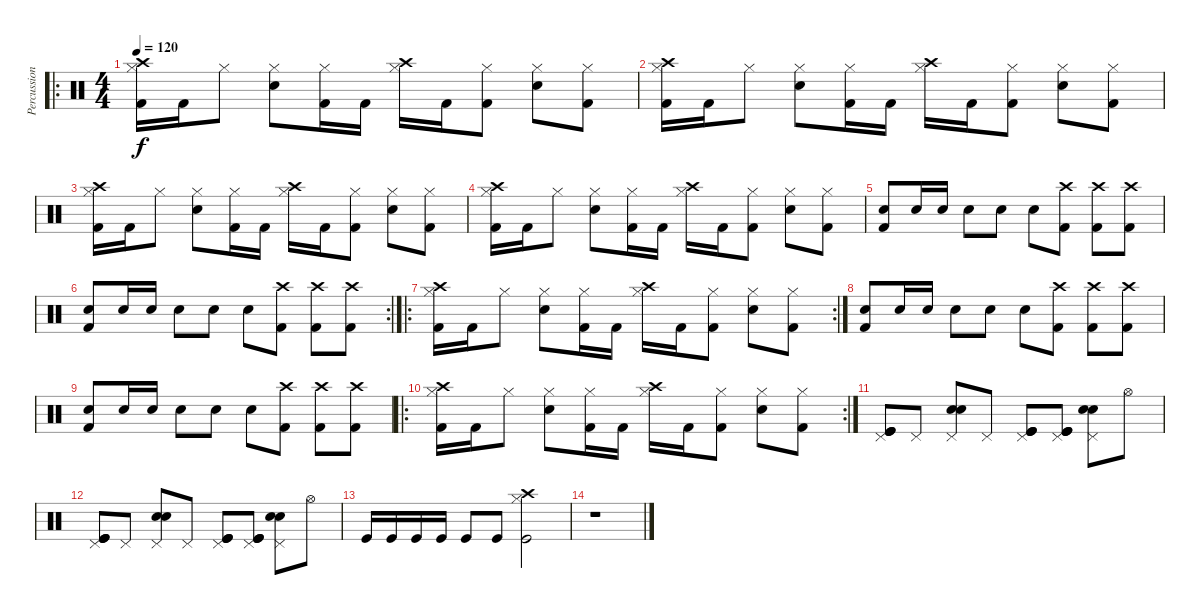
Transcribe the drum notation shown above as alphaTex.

\track ("Percussion" "Percussion") {instrument percussion}
\staff {score}
\articulation defaults
\ro
\ts (4 4)
\tempo 120
\clef neutral
\ks c
("Crash high (hit)" "Hi-Hat (closed)" "Kick (hit) 2").16{dy f} "Kick (hit) 2".16 "Hi-Hat (closed)".8 ("Hi-Hat (closed)" "Snare (hit) 2").8 ("Hi-Hat (closed)" "Kick (hit) 2").16 "Kick (hit) 2".16 ("Crash high (hit)" "Hi-Hat (closed)").16 "Kick (hit) 2".16 ("Hi-Hat (closed)" "Kick (hit) 2").8 ("Hi-Hat (closed)" "Snare (hit) 2").8 ("Hi-Hat (closed)" "Kick (hit) 2").8 |
("Crash high (hit)" "Hi-Hat (closed)" "Kick (hit) 2").16 "Kick (hit) 2".16 "Hi-Hat (closed)".8 ("Hi-Hat (closed)" "Snare (hit) 2").8 ("Hi-Hat (closed)" "Kick (hit) 2").16 "Kick (hit) 2".16 ("Crash high (hit)" "Hi-Hat (closed)").16 "Kick (hit) 2".16 ("Hi-Hat (closed)" "Kick (hit) 2").8 ("Hi-Hat (closed)" "Snare (hit) 2").8 ("Hi-Hat (closed)" "Kick (hit) 2").8 |
("Crash high (hit)" "Hi-Hat (closed)" "Kick (hit) 2").16 "Kick (hit) 2".16 "Hi-Hat (closed)".8 ("Hi-Hat (closed)" "Snare (hit) 2").8 ("Hi-Hat (closed)" "Kick (hit) 2").16 "Kick (hit) 2".16 ("Crash high (hit)" "Hi-Hat (closed)").16 "Kick (hit) 2".16 ("Hi-Hat (closed)" "Kick (hit) 2").8 ("Hi-Hat (closed)" "Snare (hit) 2").8 ("Hi-Hat (closed)" "Kick (hit) 2").8 |
("Crash high (hit)" "Hi-Hat (closed)" "Kick (hit) 2").16 "Kick (hit) 2".16 "Hi-Hat (closed)".8 ("Hi-Hat (closed)" "Snare (hit) 2").8 ("Hi-Hat (closed)" "Kick (hit) 2").16 "Kick (hit) 2".16 ("Crash high (hit)" "Hi-Hat (closed)").16 "Kick (hit) 2".16 ("Hi-Hat (closed)" "Kick (hit) 2").8 ("Hi-Hat (closed)" "Snare (hit) 2").8 ("Hi-Hat (closed)" "Kick (hit) 2").8 |
("Kick (hit) 2" "Snare (hit) 2").8 "Snare (hit) 2".16 "Snare (hit) 2".16 "Snare (hit) 2".8 "Snare (hit) 2".8 "Snare (hit) 2".8 ("Kick (hit) 2" "Crash high (hit)").8 ("Kick (hit) 2" "Crash high (hit)").8 ("Kick (hit) 2" "Crash high (hit)").8 |
\rc 2
("Kick (hit) 2" "Snare (hit) 2").8 "Snare (hit) 2".16 "Snare (hit) 2".16 "Snare (hit) 2".8 "Snare (hit) 2".8 "Snare (hit) 2".8 ("Kick (hit) 2" "Crash high (hit)").8 ("Kick (hit) 2" "Crash high (hit)").8 ("Kick (hit) 2" "Crash high (hit)").8 |
\ro
\rc 2
("Crash high (hit)" "Hi-Hat (closed)" "Kick (hit) 2").16 "Kick (hit) 2".16 "Hi-Hat (closed)".8 ("Hi-Hat (closed)" "Snare (hit) 2").8 ("Hi-Hat (closed)" "Kick (hit) 2").16 "Kick (hit) 2".16 ("Crash high (hit)" "Hi-Hat (closed)").16 "Kick (hit) 2".16 ("Hi-Hat (closed)" "Kick (hit) 2").8 ("Hi-Hat (closed)" "Snare (hit) 2").8 ("Hi-Hat (closed)" "Kick (hit) 2").8 |
("Kick (hit) 2" "Snare (hit) 2").8 "Snare (hit) 2".16 "Snare (hit) 2".16 "Snare (hit) 2".8 "Snare (hit) 2".8 "Snare (hit) 2".8 ("Kick (hit) 2" "Crash high (hit)").8 ("Kick (hit) 2" "Crash high (hit)").8 ("Kick (hit) 2" "Crash high (hit)").8 |
("Kick (hit) 2" "Snare (hit) 2").8 "Snare (hit) 2".16 "Snare (hit) 2".16 "Snare (hit) 2".8 "Snare (hit) 2".8 "Snare (hit) 2".8 ("Kick (hit) 2" "Crash high (hit)").8 ("Kick (hit) 2" "Crash high (hit)").8 ("Kick (hit) 2" "Crash high (hit)").8 |
\ro
\rc 2
("Crash high (hit)" "Hi-Hat (closed)" "Kick (hit) 2").16 "Kick (hit) 2".16 "Hi-Hat (closed)".8 ("Hi-Hat (closed)" "Snare (hit) 2").8 ("Hi-Hat (closed)" "Kick (hit) 2").16 "Kick (hit) 2".16 ("Crash high (hit)" "Hi-Hat (closed)").16 "Kick (hit) 2".16 ("Hi-Hat (closed)" "Kick (hit) 2").8 ("Hi-Hat (closed)" "Snare (hit) 2").8 ("Hi-Hat (closed)" "Kick (hit) 2").8 |
("Pedal Hi-Hat (hit)" "Kick (hit)" "Kick (hit)" "Kick (hit)").8 "Pedal Hi-Hat (hit)".8 ("Pedal Hi-Hat (hit)" "Snare (hit) 2" "Snare (hit) 2").8 "Pedal Hi-Hat (hit)".8 ("Pedal Hi-Hat (hit)" "Kick (hit)" "Kick (hit)" "Kick (hit)").8 ("Pedal Hi-Hat (hit)" "Kick (hit)" "Kick (hit)" "Kick (hit)").8 ("Pedal Hi-Hat (hit)" "Snare (hit) 2" "Snare (hit) 2").8 "Hi-Hat (open)".8 |
("Pedal Hi-Hat (hit)" "Kick (hit)" "Kick (hit)" "Kick (hit)").8 "Pedal Hi-Hat (hit)".8 ("Pedal Hi-Hat (hit)" "Snare (hit) 2" "Snare (hit) 2").8 "Pedal Hi-Hat (hit)".8 ("Pedal Hi-Hat (hit)" "Kick (hit)" "Kick (hit)" "Kick (hit)").8 ("Pedal Hi-Hat (hit)" "Kick (hit)" "Kick (hit)" "Kick (hit)").8 ("Pedal Hi-Hat (hit)" "Snare (hit) 2" "Snare (hit) 2").8 "Hi-Hat (open)".8 |
"Kick (hit)".16 "Kick (hit)".16 "Kick (hit)".16 "Kick (hit)".16 "Kick (hit)".8 "Kick (hit)".8 ("Hi-Hat (closed)" "Crash high (hit)" "Kick (hit)").2 |
r.1
